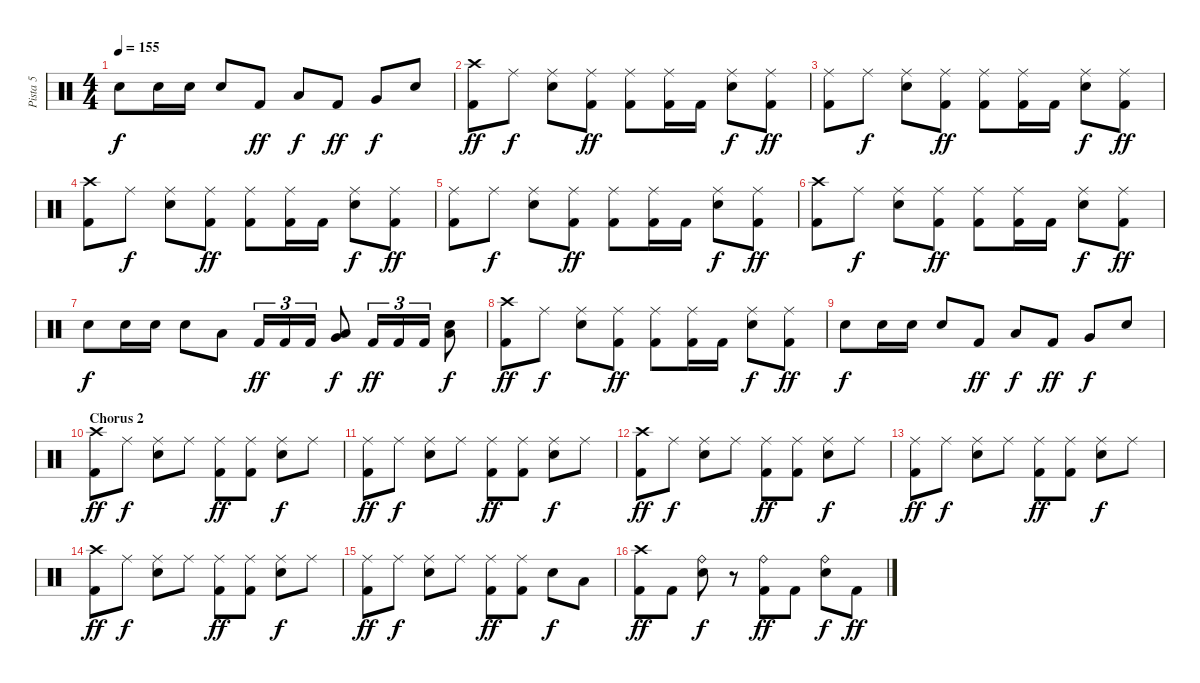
\track ("Pista 5" "Pista 5") {instrument percussion}
\staff {score}
\articulation defaults
\ts (4 4)
\tempo 155
\clef neutral
\ks c "Electric Snare (hit)".8{dy f} "Electric Snare (hit)".16 "Electric Snare (hit)".16 "Electric Snare (hit)".8 "Kick (hit) 2".8{dy ff} "Low Tom (hit)".8{dy f} "Kick (hit) 2".8{dy ff} "Very Low Tom (hit)".8{dy f} "Electric Snare (hit)".8
|
("Crash high (hit)" "Kick (hit) 2").8{dy ff} "Ride (middle)".8{dy f} ("Ride (middle)" "Electric Snare (hit)").8 ("Ride (middle)" "Kick (hit) 2").8{dy ff} ("Ride (middle)" "Kick (hit) 2").8 ("Ride (middle)" "Kick (hit) 2").16 "Kick (hit) 2".16 ("Ride (middle)" "Electric Snare (hit)").8{dy f} ("Ride (middle)" "Kick (hit) 2").8{dy ff} |
("Ride (middle)" "Kick (hit) 2").8 "Ride (middle)".8{dy f} ("Ride (middle)" "Electric Snare (hit)").8 ("Ride (middle)" "Kick (hit) 2").8{dy ff} ("Ride (middle)" "Kick (hit) 2").8 ("Ride (middle)" "Kick (hit) 2").16 "Kick (hit) 2".16 ("Ride (middle)" "Electric Snare (hit)").8{dy f} ("Ride (middle)" "Kick (hit) 2").8{dy ff} |
("Crash high (hit)" "Kick (hit) 2").8 "Ride (middle)".8{dy f} ("Ride (middle)" "Electric Snare (hit)").8 ("Ride (middle)" "Kick (hit) 2").8{dy ff} ("Ride (middle)" "Kick (hit) 2").8 ("Ride (middle)" "Kick (hit) 2").16 "Kick (hit) 2".16 ("Ride (middle)" "Electric Snare (hit)").8{dy f} ("Ride (middle)" "Kick (hit) 2").8{dy ff} |
("Ride (middle)" "Kick (hit) 2").8 "Ride (middle)".8{dy f} ("Ride (middle)" "Electric Snare (hit)").8 ("Ride (middle)" "Kick (hit) 2").8{dy ff} ("Ride (middle)" "Kick (hit) 2").8 ("Ride (middle)" "Kick (hit) 2").16 "Kick (hit) 2".16 ("Ride (middle)" "Electric Snare (hit)").8{dy f} ("Ride (middle)" "Kick (hit) 2").8{dy ff} |
("Crash high (hit)" "Kick (hit) 2").8 "Ride (middle)".8{dy f} ("Ride (middle)" "Electric Snare (hit)").8 ("Ride (middle)" "Kick (hit) 2").8{dy ff} ("Ride (middle)" "Kick (hit) 2").8 ("Ride (middle)" "Kick (hit) 2").16 "Kick (hit) 2".16 ("Ride (middle)" "Electric Snare (hit)").8{dy f} ("Ride (middle)" "Kick (hit) 2").8{dy ff} |
"Electric Snare (hit)".8{dy f} "Electric Snare (hit)".16 "Electric Snare (hit)".16 "Electric Snare (hit)".8 "Low Tom (hit)".8 "Kick (hit) 2".16{tu (3 2) dy ff} "Kick (hit) 2".16{tu (3 2)} "Kick (hit) 2".16{tu (3 2)} ("Low Tom (hit)" "Very Low Tom (hit)").8{dy f} "Kick (hit) 2".16{tu (3 2) dy ff} "Kick (hit) 2".16{tu (3 2)} "Kick (hit) 2".16{tu (3 2)} ("Low Floor Tom (hit)" "Electric Snare (hit)").8{dy f} |
("Crash high (hit)" "Kick (hit) 2").8{dy ff} "Ride (middle)".8{dy f} ("Ride (middle)" "Electric Snare (hit)").8 ("Ride (middle)" "Kick (hit) 2").8{dy ff} ("Ride (middle)" "Kick (hit) 2").8 ("Ride (middle)" "Kick (hit) 2").16 "Kick (hit) 2".16 ("Ride (middle)" "Electric Snare (hit)").8{dy f} ("Ride (middle)" "Kick (hit) 2").8{dy ff} |
"Electric Snare (hit)".8{dy f} "Electric Snare (hit)".16 "Electric Snare (hit)".16 "Electric Snare (hit)".8 "Kick (hit) 2".8{dy ff} "Low Tom (hit)".8{dy f} "Kick (hit) 2".8{dy ff} "Very Low Tom (hit)".8{dy f} "Electric Snare (hit)".8 |
\section ("" "Chorus 2")
("Crash high (hit)" "Kick (hit) 2").8{dy ff} "Ride (middle)".8{dy f} ("Ride (middle)" "Electric Snare (hit)").8 "Ride (middle)".8 ("Ride (middle)" "Kick (hit) 2").8{dy ff} ("Ride (middle)" "Kick (hit) 2").8 ("Ride (middle)" "Electric Snare (hit)").8{dy f} "Ride (middle)".8 |
("Ride (middle)" "Kick (hit) 2").8{dy ff} "Ride (middle)".8{dy f} ("Ride (middle)" "Electric Snare (hit)").8 "Ride (middle)".8 ("Ride (middle)" "Kick (hit) 2").8{dy ff} ("Ride (middle)" "Kick (hit) 2").8 ("Ride (middle)" "Electric Snare (hit)").8{dy f} "Ride (middle)".8 |
("Crash high (hit)" "Kick (hit) 2").8{dy ff} "Ride (middle)".8{dy f} ("Ride (middle)" "Electric Snare (hit)").8 "Ride (middle)".8 ("Ride (middle)" "Kick (hit) 2").8{dy ff} ("Ride (middle)" "Kick (hit) 2").8 ("Ride (middle)" "Electric Snare (hit)").8{dy f} "Ride (middle)".8 |
("Ride (middle)" "Kick (hit) 2").8{dy ff} "Ride (middle)".8{dy f} ("Ride (middle)" "Electric Snare (hit)").8 "Ride (middle)".8 ("Ride (middle)" "Kick (hit) 2").8{dy ff} ("Ride (middle)" "Kick (hit) 2").8 ("Ride (middle)" "Electric Snare (hit)").8{dy f} "Ride (middle)".8 |
("Crash high (hit)" "Kick (hit) 2").8{dy ff} "Ride (middle)".8{dy f} ("Ride (middle)" "Electric Snare (hit)").8 "Ride (middle)".8 ("Ride (middle)" "Kick (hit) 2").8{dy ff} ("Ride (middle)" "Kick (hit) 2").8 ("Ride (middle)" "Electric Snare (hit)").8{dy f} "Ride (middle)".8 |
("Ride (middle)" "Kick (hit) 2").8{dy ff} "Ride (middle)".8{dy f} ("Ride (middle)" "Electric Snare (hit)").8 "Ride (middle)".8 ("Ride (middle)" "Kick (hit) 2").8{dy ff} ("Ride (middle)" "Kick (hit) 2").8 "Electric Snare (hit)".8{dy f} "Low Tom (hit)".8 |
("Crash high (hit)" "Kick (hit) 2").8{dy ff} "Kick (hit) 2".8 ("Ride (bell)" "Electric Snare (hit)").8{dy f} r.8 ("Ride (bell)" "Kick (hit) 2").8{dy ff} "Kick (hit) 2".8 ("Ride (bell)" "Electric Snare (hit)").8{dy f} "Kick (hit) 2".8{dy ff}
